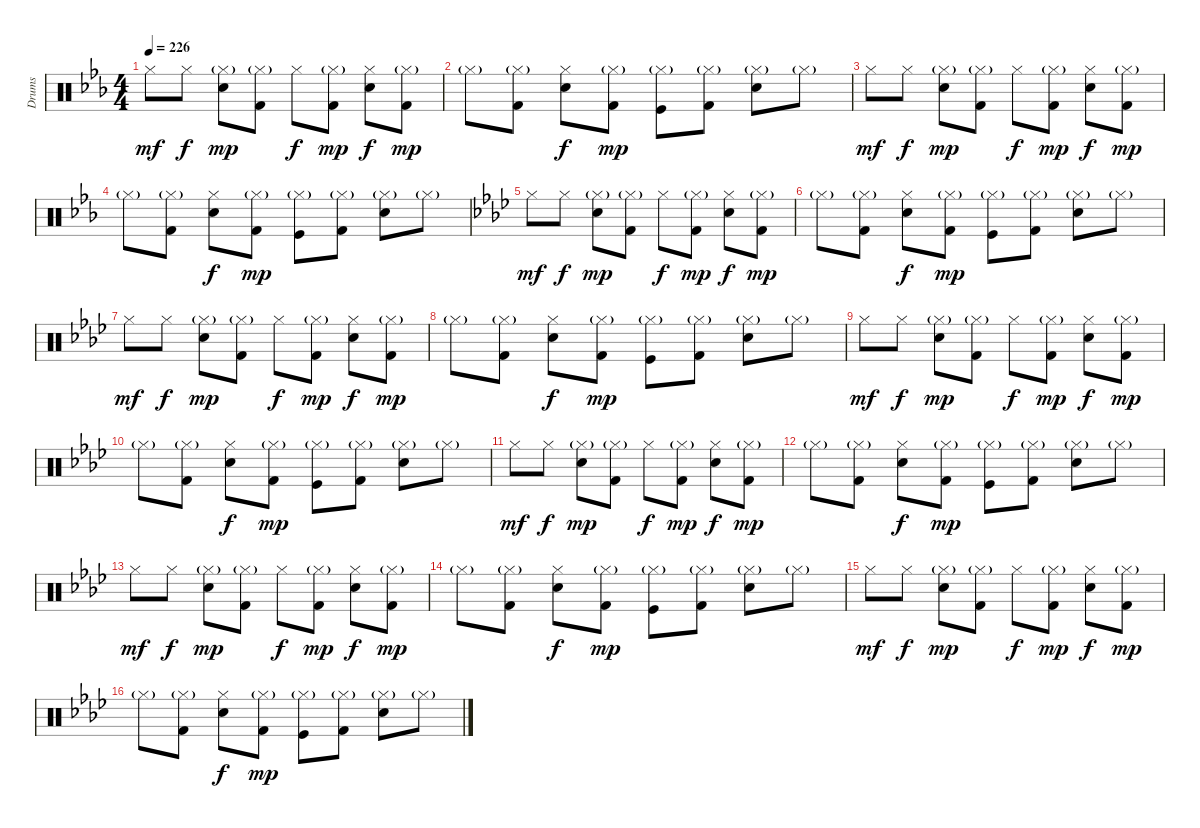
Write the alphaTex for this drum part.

\track ("Drums" "Drums") {instrument percussion}
\staff {score}
\articulation defaults
\ts (4 4)
\tempo 226
\clef neutral
\ks cminor "Hi-Hat (closed)".8{dy mf} "Hi-Hat (closed)".8{dy f}
("Hi-Hat (closed)"{g} "Snare (hit) 2").8{dy mp} ("Hi-Hat (closed)"{g} "Kick (hit) 2").8 "Hi-Hat (closed)".8{dy f} ("Hi-Hat (closed)"{g} "Kick (hit) 2").8{dy mp} ("Hi-Hat (closed)" "Snare (hit) 2").8{dy f} ("Hi-Hat (closed)"{g} "Kick (hit) 2").8{dy mp} |
"Hi-Hat (closed)"{g}.8 ("Hi-Hat (closed)"{g} "Kick (hit) 2").8 ("Hi-Hat (closed)" "Snare (hit) 2").8{dy f} ("Hi-Hat (closed)"{g} "Kick (hit) 2").8{dy mp} ("Hi-Hat (closed)"{g} "Kick (hit)").8 ("Hi-Hat (closed)"{g} "Kick (hit) 2").8 ("Hi-Hat (closed)"{g} "Snare (hit) 2").8 "Hi-Hat (closed)"{g}.8 |
"Hi-Hat (closed)".8{dy mf} "Hi-Hat (closed)".8{dy f} ("Hi-Hat (closed)"{g} "Snare (hit) 2").8{dy mp} ("Hi-Hat (closed)"{g} "Kick (hit) 2").8 "Hi-Hat (closed)".8{dy f} ("Hi-Hat (closed)"{g} "Kick (hit) 2").8{dy mp} ("Hi-Hat (closed)" "Snare (hit) 2").8{dy f} ("Hi-Hat (closed)"{g} "Kick (hit) 2").8{dy mp} |
"Hi-Hat (closed)"{g}.8 ("Hi-Hat (closed)"{g} "Kick (hit) 2").8 ("Hi-Hat (closed)" "Snare (hit) 2").8{dy f} ("Hi-Hat (closed)"{g} "Kick (hit) 2").8{dy mp} ("Hi-Hat (closed)"{g} "Kick (hit)").8 ("Hi-Hat (closed)"{g} "Kick (hit) 2").8 ("Hi-Hat (closed)"{g} "Snare (hit) 2").8 "Hi-Hat (closed)"{g}.8 |
\ks fminor "Hi-Hat (closed)".8{dy mf} "Hi-Hat (closed)".8{dy f}
("Hi-Hat (closed)"{g} "Snare (hit) 2").8{dy mp} ("Hi-Hat (closed)"{g} "Kick (hit) 2").8 "Hi-Hat (closed)".8{dy f} ("Hi-Hat (closed)"{g} "Kick (hit) 2").8{dy mp} ("Hi-Hat (closed)" "Snare (hit) 2").8{dy f} ("Hi-Hat (closed)"{g} "Kick (hit) 2").8{dy mp} |
"Hi-Hat (closed)"{g}.8 ("Hi-Hat (closed)"{g} "Kick (hit) 2").8 ("Hi-Hat (closed)" "Snare (hit) 2").8{dy f} ("Hi-Hat (closed)"{g} "Kick (hit) 2").8{dy mp} ("Hi-Hat (closed)"{g} "Kick (hit)").8 ("Hi-Hat (closed)"{g} "Kick (hit) 2").8 ("Hi-Hat (closed)"{g} "Snare (hit) 2").8 "Hi-Hat (closed)"{g}.8 |
"Hi-Hat (closed)".8{dy mf} "Hi-Hat (closed)".8{dy f} ("Hi-Hat (closed)"{g} "Snare (hit) 2").8{dy mp} ("Hi-Hat (closed)"{g} "Kick (hit) 2").8 "Hi-Hat (closed)".8{dy f} ("Hi-Hat (closed)"{g} "Kick (hit) 2").8{dy mp} ("Hi-Hat (closed)" "Snare (hit) 2").8{dy f} ("Hi-Hat (closed)"{g} "Kick (hit) 2").8{dy mp} |
"Hi-Hat (closed)"{g}.8 ("Hi-Hat (closed)"{g} "Kick (hit) 2").8 ("Hi-Hat (closed)" "Snare (hit) 2").8{dy f} ("Hi-Hat (closed)"{g} "Kick (hit) 2").8{dy mp} ("Hi-Hat (closed)"{g} "Kick (hit)").8 ("Hi-Hat (closed)"{g} "Kick (hit) 2").8 ("Hi-Hat (closed)"{g} "Snare (hit) 2").8 "Hi-Hat (closed)"{g}.8 |
"Hi-Hat (closed)".8{dy mf} "Hi-Hat (closed)".8{dy f} ("Hi-Hat (closed)"{g} "Snare (hit) 2").8{dy mp} ("Hi-Hat (closed)"{g} "Kick (hit) 2").8 "Hi-Hat (closed)".8{dy f} ("Hi-Hat (closed)"{g} "Kick (hit) 2").8{dy mp} ("Hi-Hat (closed)" "Snare (hit) 2").8{dy f} ("Hi-Hat (closed)"{g} "Kick (hit) 2").8{dy mp} |
"Hi-Hat (closed)"{g}.8 ("Hi-Hat (closed)"{g} "Kick (hit) 2").8 ("Hi-Hat (closed)" "Snare (hit) 2").8{dy f} ("Hi-Hat (closed)"{g} "Kick (hit) 2").8{dy mp} ("Hi-Hat (closed)"{g} "Kick (hit)").8 ("Hi-Hat (closed)"{g} "Kick (hit) 2").8 ("Hi-Hat (closed)"{g} "Snare (hit) 2").8 "Hi-Hat (closed)"{g}.8 |
"Hi-Hat (closed)".8{dy mf} "Hi-Hat (closed)".8{dy f} ("Hi-Hat (closed)"{g} "Snare (hit) 2").8{dy mp} ("Hi-Hat (closed)"{g} "Kick (hit) 2").8 "Hi-Hat (closed)".8{dy f} ("Hi-Hat (closed)"{g} "Kick (hit) 2").8{dy mp} ("Hi-Hat (closed)" "Snare (hit) 2").8{dy f} ("Hi-Hat (closed)"{g} "Kick (hit) 2").8{dy mp} |
"Hi-Hat (closed)"{g}.8 ("Hi-Hat (closed)"{g} "Kick (hit) 2").8 ("Hi-Hat (closed)" "Snare (hit) 2").8{dy f} ("Hi-Hat (closed)"{g} "Kick (hit) 2").8{dy mp} ("Hi-Hat (closed)"{g} "Kick (hit)").8 ("Hi-Hat (closed)"{g} "Kick (hit) 2").8 ("Hi-Hat (closed)"{g} "Snare (hit) 2").8 "Hi-Hat (closed)"{g}.8 |
"Hi-Hat (closed)".8{dy mf} "Hi-Hat (closed)".8{dy f} ("Hi-Hat (closed)"{g} "Snare (hit) 2").8{dy mp} ("Hi-Hat (closed)"{g} "Kick (hit) 2").8 "Hi-Hat (closed)".8{dy f} ("Hi-Hat (closed)"{g} "Kick (hit) 2").8{dy mp} ("Hi-Hat (closed)" "Snare (hit) 2").8{dy f} ("Hi-Hat (closed)"{g} "Kick (hit) 2").8{dy mp} |
"Hi-Hat (closed)"{g}.8 ("Hi-Hat (closed)"{g} "Kick (hit) 2").8 ("Hi-Hat (closed)" "Snare (hit) 2").8{dy f} ("Hi-Hat (closed)"{g} "Kick (hit) 2").8{dy mp} ("Hi-Hat (closed)"{g} "Kick (hit)").8 ("Hi-Hat (closed)"{g} "Kick (hit) 2").8 ("Hi-Hat (closed)"{g} "Snare (hit) 2").8 "Hi-Hat (closed)"{g}.8 |
"Hi-Hat (closed)".8{dy mf} "Hi-Hat (closed)".8{dy f} ("Hi-Hat (closed)"{g} "Snare (hit) 2").8{dy mp} ("Hi-Hat (closed)"{g} "Kick (hit) 2").8 "Hi-Hat (closed)".8{dy f} ("Hi-Hat (closed)"{g} "Kick (hit) 2").8{dy mp} ("Hi-Hat (closed)" "Snare (hit) 2").8{dy f} ("Hi-Hat (closed)"{g} "Kick (hit) 2").8{dy mp} |
"Hi-Hat (closed)"{g}.8 ("Hi-Hat (closed)"{g} "Kick (hit) 2").8 ("Hi-Hat (closed)" "Snare (hit) 2").8{dy f} ("Hi-Hat (closed)"{g} "Kick (hit) 2").8{dy mp} ("Hi-Hat (closed)"{g} "Kick (hit)").8 ("Hi-Hat (closed)"{g} "Kick (hit) 2").8 ("Hi-Hat (closed)"{g} "Snare (hit) 2").8 "Hi-Hat (closed)"{g}.8
